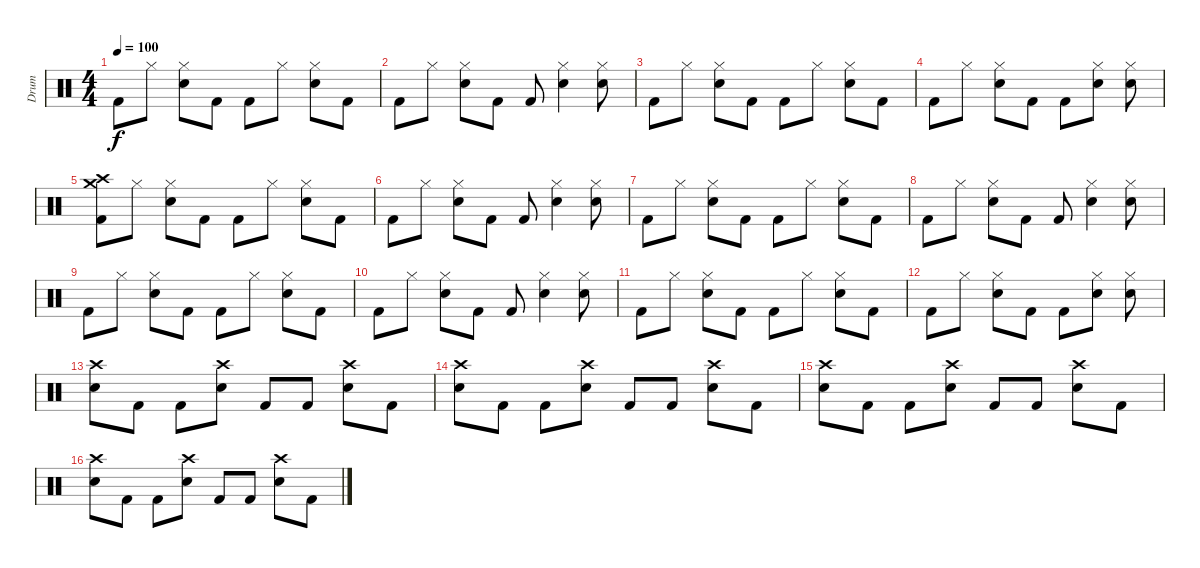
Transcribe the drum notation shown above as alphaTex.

\track ("Drum" "Drum") {instrument percussion}
\staff {score}
\articulation defaults
\ts (4 4)
\tempo 100
\clef neutral
\ks c "Kick (hit) 2".8{dy f} "Hi-Hat (closed)".8
("Hi-Hat (closed)" "Electric Snare (hit)").8 "Kick (hit) 2".8 "Kick (hit) 2".8 "Hi-Hat (closed)".8 ("Hi-Hat (closed)" "Electric Snare (hit)").8 "Kick (hit) 2".8 |
"Kick (hit) 2".8 "Hi-Hat (closed)".8 ("Hi-Hat (closed)" "Electric Snare (hit)").8 "Kick (hit) 2".8 "Kick (hit) 2".8 ("Hi-Hat (closed)" "Electric Snare (hit)").4 ("Hi-Hat (closed)" "Electric Snare (hit)").8 |
"Kick (hit) 2".8 "Hi-Hat (closed)".8 ("Hi-Hat (closed)" "Electric Snare (hit)").8 "Kick (hit) 2".8 "Kick (hit) 2".8 "Hi-Hat (closed)".8 ("Hi-Hat (closed)" "Electric Snare (hit)").8 "Kick (hit) 2".8 |
"Kick (hit) 2".8 "Hi-Hat (closed)".8 ("Hi-Hat (closed)" "Electric Snare (hit)").8 "Kick (hit) 2".8 "Kick (hit) 2".8 ("Hi-Hat (closed)" "Electric Snare (hit)").8 ("Hi-Hat (closed)" "Electric Snare (hit)").8 |
("Crash high (hit)" "Crash medium (hit)" "Kick (hit) 2").8 "Hi-Hat (closed)".8 ("Hi-Hat (closed)" "Electric Snare (hit)").8 "Kick (hit) 2".8 "Kick (hit) 2".8 "Hi-Hat (closed)".8 ("Hi-Hat (closed)" "Electric Snare (hit)").8 "Kick (hit) 2".8 |
"Kick (hit) 2".8 "Hi-Hat (closed)".8 ("Hi-Hat (closed)" "Electric Snare (hit)").8 "Kick (hit) 2".8 "Kick (hit) 2".8 ("Hi-Hat (closed)" "Electric Snare (hit)").4 ("Hi-Hat (closed)" "Electric Snare (hit)").8 |
"Kick (hit) 2".8 "Hi-Hat (closed)".8 ("Hi-Hat (closed)" "Electric Snare (hit)").8 "Kick (hit) 2".8 "Kick (hit) 2".8 "Hi-Hat (closed)".8 ("Hi-Hat (closed)" "Electric Snare (hit)").8 "Kick (hit) 2".8 |
"Kick (hit) 2".8 "Hi-Hat (closed)".8 ("Hi-Hat (closed)" "Electric Snare (hit)").8 "Kick (hit) 2".8 "Kick (hit) 2".8 ("Hi-Hat (closed)" "Electric Snare (hit)").4 ("Hi-Hat (closed)" "Electric Snare (hit)").8 |
"Kick (hit) 2".8 "Hi-Hat (closed)".8 ("Hi-Hat (closed)" "Electric Snare (hit)").8 "Kick (hit) 2".8 "Kick (hit) 2".8 "Hi-Hat (closed)".8 ("Hi-Hat (closed)" "Electric Snare (hit)").8 "Kick (hit) 2".8 |
"Kick (hit) 2".8 "Hi-Hat (closed)".8 ("Hi-Hat (closed)" "Electric Snare (hit)").8 "Kick (hit) 2".8 "Kick (hit) 2".8 ("Hi-Hat (closed)" "Electric Snare (hit)").4 ("Hi-Hat (closed)" "Electric Snare (hit)").8 |
"Kick (hit) 2".8 "Hi-Hat (closed)".8 ("Hi-Hat (closed)" "Electric Snare (hit)").8 "Kick (hit) 2".8 "Kick (hit) 2".8 "Hi-Hat (closed)".8 ("Hi-Hat (closed)" "Electric Snare (hit)").8 "Kick (hit) 2".8 |
"Kick (hit) 2".8 "Hi-Hat (closed)".8 ("Hi-Hat (closed)" "Electric Snare (hit)").8 "Kick (hit) 2".8 "Kick (hit) 2".8 ("Hi-Hat (closed)" "Electric Snare (hit)").8 ("Hi-Hat (closed)" "Electric Snare (hit)").8 |
("Crash high (hit)" "Electric Snare (hit)").8 "Kick (hit) 2".8 "Kick (hit) 2".8 ("Crash high (hit)" "Electric Snare (hit)").8 "Kick (hit) 2".8 "Kick (hit) 2".8 ("Crash high (hit)" "Electric Snare (hit)").8 "Kick (hit) 2".8 |
("Crash high (hit)" "Electric Snare (hit)").8 "Kick (hit) 2".8 "Kick (hit) 2".8 ("Crash high (hit)" "Electric Snare (hit)").8 "Kick (hit) 2".8 "Kick (hit) 2".8 ("Crash high (hit)" "Electric Snare (hit)").8 "Kick (hit) 2".8 |
("Crash high (hit)" "Electric Snare (hit)").8 "Kick (hit) 2".8 "Kick (hit) 2".8 ("Crash high (hit)" "Electric Snare (hit)").8 "Kick (hit) 2".8 "Kick (hit) 2".8 ("Crash high (hit)" "Electric Snare (hit)").8 "Kick (hit) 2".8 |
("Crash high (hit)" "Electric Snare (hit)").8 "Kick (hit) 2".8 "Kick (hit) 2".8 ("Crash high (hit)" "Electric Snare (hit)").8 "Kick (hit) 2".8 "Kick (hit) 2".8 ("Crash high (hit)" "Electric Snare (hit)").8 "Kick (hit) 2".8
